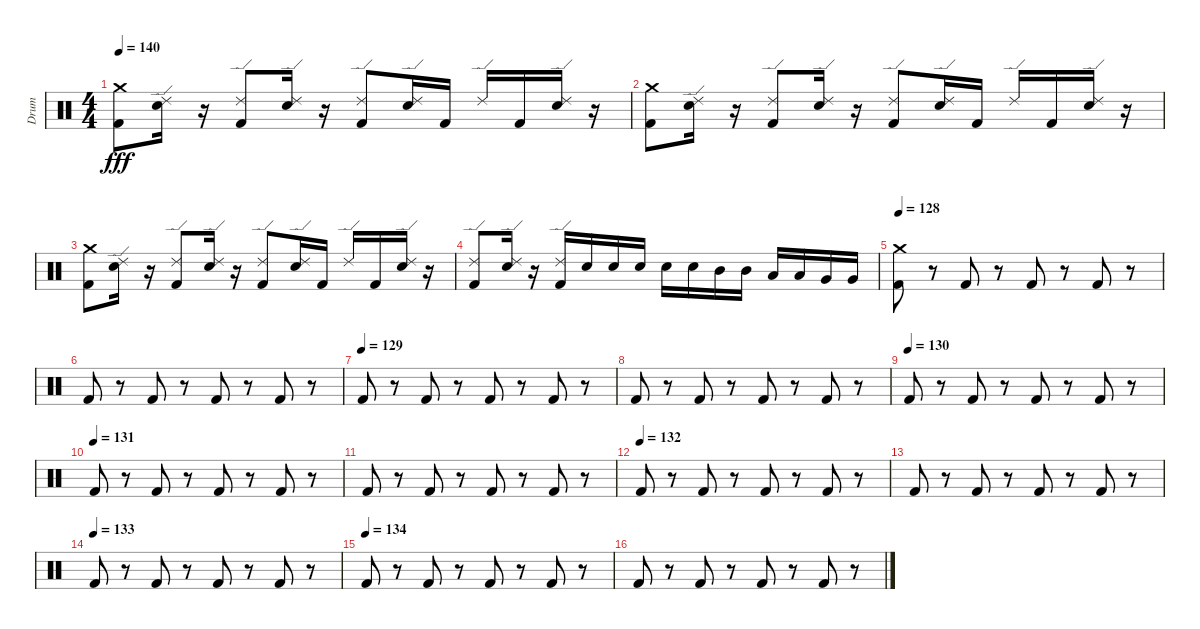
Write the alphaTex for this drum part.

\track ("Drum" "Drum") {instrument percussion}
\staff {score}
\articulation defaults
\ts (4 4)
\tempo 140
\clef neutral
\ks c
("Kick (hit) 2" "Crash medium (hit)").8{dy fff} ("Snare (hit) 2" "Ride (edge) 2").16 r.16 ("Kick (hit) 2" "Ride (edge) 2").8 ("Snare (hit) 2" "Ride (edge) 2").16 r.16 ("Kick (hit) 2" "Ride (edge) 2").8 ("Snare (hit) 2" "Ride (edge) 2").16 "Kick (hit) 2".16 "Ride (edge) 2".16 "Kick (hit) 2".16 ("Snare (hit) 2" "Ride (edge) 2").16 r.16 |
("Kick (hit) 2" "Crash medium (hit)").8 ("Snare (hit) 2" "Ride (edge) 2").16 r.16 ("Kick (hit) 2" "Ride (edge) 2").8 ("Snare (hit) 2" "Ride (edge) 2").16 r.16 ("Kick (hit) 2" "Ride (edge) 2").8 ("Snare (hit) 2" "Ride (edge) 2").16 "Kick (hit) 2".16 "Ride (edge) 2".16 "Kick (hit) 2".16 ("Snare (hit) 2" "Ride (edge) 2").16 r.16 |
("Kick (hit) 2" "Crash medium (hit)").8 ("Snare (hit) 2" "Ride (edge) 2").16 r.16 ("Kick (hit) 2" "Ride (edge) 2").8 ("Snare (hit) 2" "Ride (edge) 2").16 r.16 ("Kick (hit) 2" "Ride (edge) 2").8 ("Snare (hit) 2" "Ride (edge) 2").16 "Kick (hit) 2".16 "Ride (edge) 2".16 "Kick (hit) 2".16 ("Snare (hit) 2" "Ride (edge) 2").16 r.16 |
("Kick (hit) 2" "Ride (edge) 2").8 ("Snare (hit) 2" "Ride (edge) 2").16 r.16 ("Kick (hit) 2" "Ride (edge) 2").16 "Snare (hit) 2".16 "Snare (hit) 2".16 "Snare (hit) 2".16 "Snare (hit) 2".16 "Snare (hit) 2".16 "Mid Tom (hit)".16 "Mid Tom (hit)".16 "Low Tom (hit)".16 "Low Tom (hit)".16 "Very Low Tom (hit)".16 "Very Low Tom (hit)".16 |
\tempo 128
("Kick (hit) 2" "Crash medium (hit)").8 r.8 "Kick (hit) 2".8 r.8 "Kick (hit) 2".8 r.8 "Kick (hit) 2".8 r.8 |
"Kick (hit) 2".8 r.8 "Kick (hit) 2".8 r.8 "Kick (hit) 2".8 r.8 "Kick (hit) 2".8 r.8 |
\tempo (129)
"Kick (hit) 2".8 r.8 "Kick (hit) 2".8 r.8 "Kick (hit) 2".8 r.8 "Kick (hit) 2".8 r.8 |
"Kick (hit) 2".8 r.8 "Kick (hit) 2".8 r.8 "Kick (hit) 2".8 r.8 "Kick (hit) 2".8 r.8 |
\tempo (130)
"Kick (hit) 2".8 r.8 "Kick (hit) 2".8 r.8 "Kick (hit) 2".8 r.8 "Kick (hit) 2".8 r.8 |
\tempo (131)
"Kick (hit) 2".8 r.8 "Kick (hit) 2".8 r.8 "Kick (hit) 2".8 r.8 "Kick (hit) 2".8 r.8 |
"Kick (hit) 2".8 r.8 "Kick (hit) 2".8 r.8 "Kick (hit) 2".8 r.8 "Kick (hit) 2".8 r.8 |
\tempo (132)
"Kick (hit) 2".8 r.8 "Kick (hit) 2".8 r.8 "Kick (hit) 2".8 r.8 "Kick (hit) 2".8 r.8 |
"Kick (hit) 2".8 r.8 "Kick (hit) 2".8 r.8 "Kick (hit) 2".8 r.8 "Kick (hit) 2".8 r.8 |
\tempo (133)
"Kick (hit) 2".8 r.8 "Kick (hit) 2".8 r.8 "Kick (hit) 2".8 r.8 "Kick (hit) 2".8 r.8 |
\tempo (134)
"Kick (hit) 2".8 r.8 "Kick (hit) 2".8 r.8 "Kick (hit) 2".8 r.8 "Kick (hit) 2".8 r.8 |
"Kick (hit) 2".8 r.8 "Kick (hit) 2".8 r.8 "Kick (hit) 2".8 r.8 "Kick (hit) 2".8 r.8
